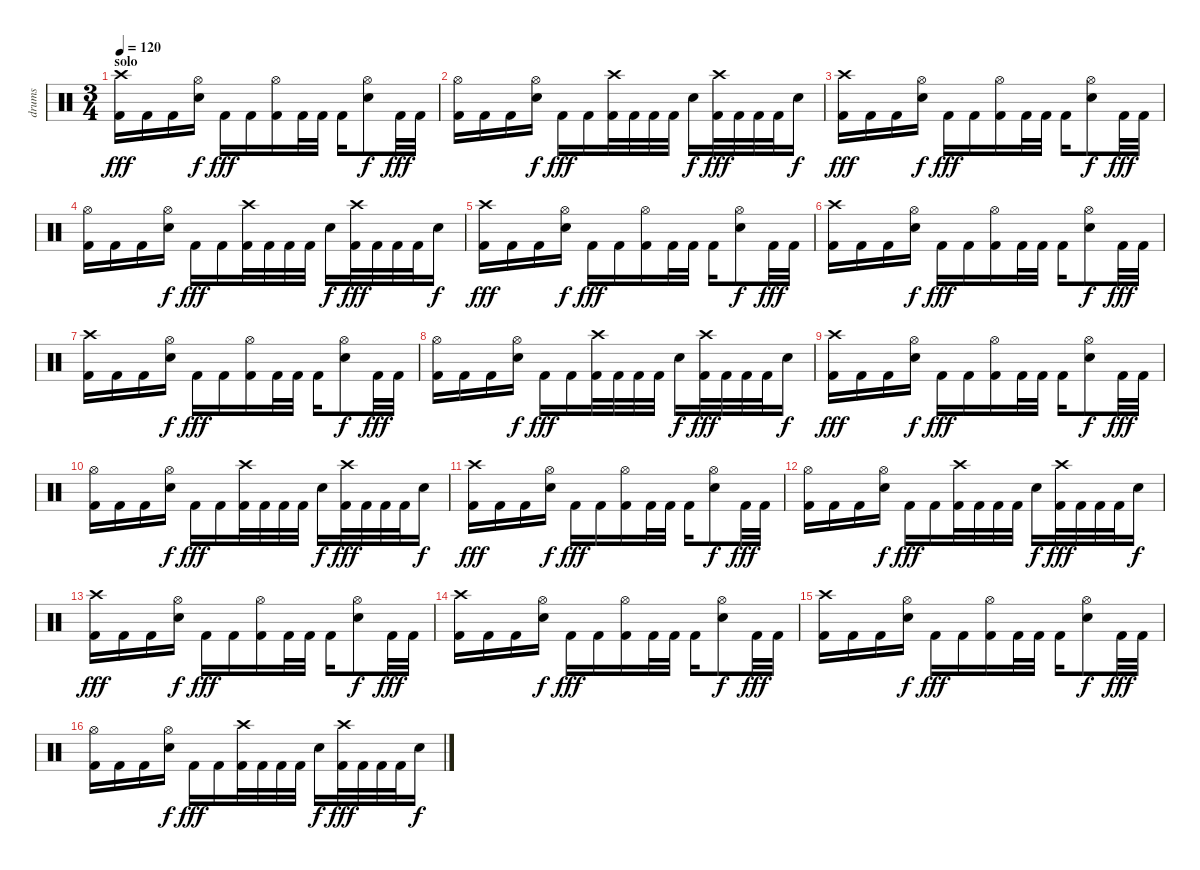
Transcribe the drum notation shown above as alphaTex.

\track ("drums" "drums") {instrument percussion}
\staff {score}
\articulation defaults
\ts (3 4)
\section ("" "solo")
\tempo 120
\clef neutral
\ks c
("Crash high (hit)" "Kick (hit) 2").16{dy fff} "Kick (hit) 2".16 "Kick (hit) 2".16 ("Hi-Hat (open)" "Snare (hit) 2").16{dy f} "Kick (hit) 2".16{dy fff} "Kick (hit) 2".16 ("Hi-Hat (open)" "Kick (hit) 2").16 "Kick (hit) 2".32 "Kick (hit) 2".32 "Kick (hit) 2".16 ("Hi-Hat (open)" "Snare (hit) 2").8{dy f} "Kick (hit) 2".32{dy fff} "Kick (hit) 2".32 |
("Hi-Hat (open)" "Kick (hit) 2").16 "Kick (hit) 2".16 "Kick (hit) 2".16 ("Hi-Hat (open)" "Snare (hit) 2").16{dy f} "Kick (hit) 2".16{dy fff} "Kick (hit) 2".16 ("Crash high (hit)" "Kick (hit) 2").32 "Kick (hit) 2".32 "Kick (hit) 2".32 "Kick (hit) 2".32 "Snare (hit) 2".16{dy f} ("Crash high (hit)" "Kick (hit) 2").32{dy fff} "Kick (hit) 2".32 "Kick (hit) 2".32 "Kick (hit) 2".32 "Snare (hit) 2".16{dy f} |
("Crash high (hit)" "Kick (hit) 2").16{dy fff} "Kick (hit) 2".16 "Kick (hit) 2".16 ("Hi-Hat (open)" "Snare (hit) 2").16{dy f} "Kick (hit) 2".16{dy fff} "Kick (hit) 2".16 ("Hi-Hat (open)" "Kick (hit) 2").16 "Kick (hit) 2".32 "Kick (hit) 2".32 "Kick (hit) 2".16 ("Hi-Hat (open)" "Snare (hit) 2").8{dy f} "Kick (hit) 2".32{dy fff} "Kick (hit) 2".32 |
("Hi-Hat (open)" "Kick (hit) 2").16 "Kick (hit) 2".16 "Kick (hit) 2".16 ("Hi-Hat (open)" "Snare (hit) 2").16{dy f} "Kick (hit) 2".16{dy fff} "Kick (hit) 2".16 ("Crash high (hit)" "Kick (hit) 2").32 "Kick (hit) 2".32 "Kick (hit) 2".32 "Kick (hit) 2".32 "Snare (hit) 2".16{dy f} ("Crash high (hit)" "Kick (hit) 2").32{dy fff} "Kick (hit) 2".32 "Kick (hit) 2".32 "Kick (hit) 2".32 "Snare (hit) 2".16{dy f} |
("Crash high (hit)" "Kick (hit) 2").16{dy fff} "Kick (hit) 2".16 "Kick (hit) 2".16 ("Hi-Hat (open)" "Snare (hit) 2").16{dy f} "Kick (hit) 2".16{dy fff} "Kick (hit) 2".16 ("Hi-Hat (open)" "Kick (hit) 2").16 "Kick (hit) 2".32 "Kick (hit) 2".32 "Kick (hit) 2".16 ("Hi-Hat (open)" "Snare (hit) 2").8{dy f} "Kick (hit) 2".32{dy fff} "Kick (hit) 2".32 |
("Crash high (hit)" "Kick (hit) 2").16 "Kick (hit) 2".16 "Kick (hit) 2".16 ("Hi-Hat (open)" "Snare (hit) 2").16{dy f} "Kick (hit) 2".16{dy fff} "Kick (hit) 2".16 ("Hi-Hat (open)" "Kick (hit) 2").16 "Kick (hit) 2".32 "Kick (hit) 2".32 "Kick (hit) 2".16 ("Hi-Hat (open)" "Snare (hit) 2").8{dy f} "Kick (hit) 2".32{dy fff} "Kick (hit) 2".32 |
("Crash high (hit)" "Kick (hit) 2").16 "Kick (hit) 2".16 "Kick (hit) 2".16 ("Hi-Hat (open)" "Snare (hit) 2").16{dy f} "Kick (hit) 2".16{dy fff} "Kick (hit) 2".16 ("Hi-Hat (open)" "Kick (hit) 2").16 "Kick (hit) 2".32 "Kick (hit) 2".32 "Kick (hit) 2".16 ("Hi-Hat (open)" "Snare (hit) 2").8{dy f} "Kick (hit) 2".32{dy fff} "Kick (hit) 2".32 |
("Hi-Hat (open)" "Kick (hit) 2").16 "Kick (hit) 2".16 "Kick (hit) 2".16 ("Hi-Hat (open)" "Snare (hit) 2").16{dy f} "Kick (hit) 2".16{dy fff} "Kick (hit) 2".16 ("Crash high (hit)" "Kick (hit) 2").32 "Kick (hit) 2".32 "Kick (hit) 2".32 "Kick (hit) 2".32 "Snare (hit) 2".16{dy f} ("Crash high (hit)" "Kick (hit) 2").32{dy fff} "Kick (hit) 2".32 "Kick (hit) 2".32 "Kick (hit) 2".32 "Snare (hit) 2".16{dy f} |
("Crash high (hit)" "Kick (hit) 2").16{dy fff} "Kick (hit) 2".16 "Kick (hit) 2".16 ("Hi-Hat (open)" "Snare (hit) 2").16{dy f} "Kick (hit) 2".16{dy fff} "Kick (hit) 2".16 ("Hi-Hat (open)" "Kick (hit) 2").16 "Kick (hit) 2".32 "Kick (hit) 2".32 "Kick (hit) 2".16 ("Hi-Hat (open)" "Snare (hit) 2").8{dy f} "Kick (hit) 2".32{dy fff} "Kick (hit) 2".32 |
("Hi-Hat (open)" "Kick (hit) 2").16 "Kick (hit) 2".16 "Kick (hit) 2".16 ("Hi-Hat (open)" "Snare (hit) 2").16{dy f} "Kick (hit) 2".16{dy fff} "Kick (hit) 2".16 ("Crash high (hit)" "Kick (hit) 2").32 "Kick (hit) 2".32 "Kick (hit) 2".32 "Kick (hit) 2".32 "Snare (hit) 2".16{dy f} ("Crash high (hit)" "Kick (hit) 2").32{dy fff} "Kick (hit) 2".32 "Kick (hit) 2".32 "Kick (hit) 2".32 "Snare (hit) 2".16{dy f} |
("Crash high (hit)" "Kick (hit) 2").16{dy fff} "Kick (hit) 2".16 "Kick (hit) 2".16 ("Hi-Hat (open)" "Snare (hit) 2").16{dy f} "Kick (hit) 2".16{dy fff} "Kick (hit) 2".16 ("Hi-Hat (open)" "Kick (hit) 2").16 "Kick (hit) 2".32 "Kick (hit) 2".32 "Kick (hit) 2".16 ("Hi-Hat (open)" "Snare (hit) 2").8{dy f} "Kick (hit) 2".32{dy fff} "Kick (hit) 2".32 |
("Hi-Hat (open)" "Kick (hit) 2").16 "Kick (hit) 2".16 "Kick (hit) 2".16 ("Hi-Hat (open)" "Snare (hit) 2").16{dy f} "Kick (hit) 2".16{dy fff} "Kick (hit) 2".16 ("Crash high (hit)" "Kick (hit) 2").32 "Kick (hit) 2".32 "Kick (hit) 2".32 "Kick (hit) 2".32 "Snare (hit) 2".16{dy f} ("Crash high (hit)" "Kick (hit) 2").32{dy fff} "Kick (hit) 2".32 "Kick (hit) 2".32 "Kick (hit) 2".32 "Snare (hit) 2".16{dy f} |
("Crash high (hit)" "Kick (hit) 2").16{dy fff} "Kick (hit) 2".16 "Kick (hit) 2".16 ("Hi-Hat (open)" "Snare (hit) 2").16{dy f} "Kick (hit) 2".16{dy fff} "Kick (hit) 2".16 ("Hi-Hat (open)" "Kick (hit) 2").16 "Kick (hit) 2".32 "Kick (hit) 2".32 "Kick (hit) 2".16 ("Hi-Hat (open)" "Snare (hit) 2").8{dy f} "Kick (hit) 2".32{dy fff} "Kick (hit) 2".32 |
("Crash high (hit)" "Kick (hit) 2").16 "Kick (hit) 2".16 "Kick (hit) 2".16 ("Hi-Hat (open)" "Snare (hit) 2").16{dy f} "Kick (hit) 2".16{dy fff} "Kick (hit) 2".16 ("Hi-Hat (open)" "Kick (hit) 2").16 "Kick (hit) 2".32 "Kick (hit) 2".32 "Kick (hit) 2".16 ("Hi-Hat (open)" "Snare (hit) 2").8{dy f} "Kick (hit) 2".32{dy fff} "Kick (hit) 2".32 |
("Crash high (hit)" "Kick (hit) 2").16 "Kick (hit) 2".16 "Kick (hit) 2".16 ("Hi-Hat (open)" "Snare (hit) 2").16{dy f} "Kick (hit) 2".16{dy fff} "Kick (hit) 2".16 ("Hi-Hat (open)" "Kick (hit) 2").16 "Kick (hit) 2".32 "Kick (hit) 2".32 "Kick (hit) 2".16 ("Hi-Hat (open)" "Snare (hit) 2").8{dy f} "Kick (hit) 2".32{dy fff} "Kick (hit) 2".32 |
("Hi-Hat (open)" "Kick (hit) 2").16 "Kick (hit) 2".16 "Kick (hit) 2".16 ("Hi-Hat (open)" "Snare (hit) 2").16{dy f} "Kick (hit) 2".16{dy fff} "Kick (hit) 2".16 ("Crash high (hit)" "Kick (hit) 2").32 "Kick (hit) 2".32 "Kick (hit) 2".32 "Kick (hit) 2".32 "Snare (hit) 2".16{dy f} ("Crash high (hit)" "Kick (hit) 2").32{dy fff} "Kick (hit) 2".32 "Kick (hit) 2".32 "Kick (hit) 2".32 "Snare (hit) 2".16{dy f}
